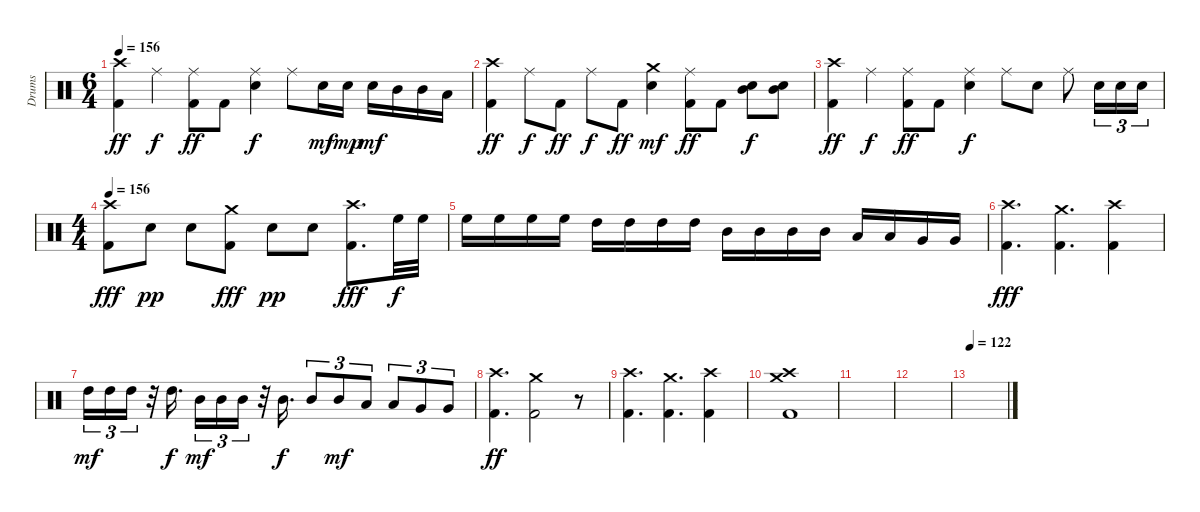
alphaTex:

\track ("Drums" "Drums") {instrument percussion}
\staff {score}
\articulation defaults
\ts (6 4)
\tempo 156
\clef neutral
\ks c
("Crash high (hit)" "Kick (hit) 2").4{dy ff} "Ride (middle)".4{dy f} ("Ride (middle)" "Kick (hit) 2").8{dy ff} "Kick (hit) 2".8 ("Ride (middle)" "Electric Snare (hit)").4{dy f} "Ride (middle)".8 "Electric Snare (hit)".16{dy mf} "Electric Snare (hit)".16{dy mp} "Electric Snare (hit)".16{dy mf} "Mid Tom (hit)".16 "Mid Tom (hit)".16 "Low Tom (hit)".16 |
("Crash high (hit)" "Kick (hit) 2").4{dy ff} "Ride (middle)".8{dy f} "Kick (hit) 2".8{dy ff} "Ride (middle)".8{dy f} "Kick (hit) 2".8{dy ff} ("Crash medium (hit)" "Electric Snare (hit)").4{dy mf} ("Ride (middle)" "Kick (hit) 2").8{dy ff} "Kick (hit) 2".8 ("Electric Snare (hit)" "Mid Tom (hit)").8{dy f} ("Electric Snare (hit)" "Mid Tom (hit)").8 |
("Crash high (hit)" "Kick (hit) 2").4{dy ff} "Ride (middle)".4{dy f} ("Ride (middle)" "Kick (hit) 2").8{dy ff} "Kick (hit) 2".8 ("Ride (middle)" "Electric Snare (hit)").4{dy f} "Ride (middle)".8 "Electric Snare (hit)".8 "Ride (middle)".8 "Electric Snare (hit)".16{tu (3 2)} "Electric Snare (hit)".16{tu (3 2)} "Electric Snare (hit)".16{tu (3 2)} |
\ts (4 4)
\tempo 156
("Crash high (hit)" "Kick (hit) 2").8{dy fff} "Electric Snare (hit)".8{dy pp} "Electric Snare (hit)".8 ("Crash medium (hit)" "Kick (hit) 2").8{dy fff} "Electric Snare (hit)".8{dy pp} "Electric Snare (hit)".8 ("Crash high (hit)" "Kick (hit) 2").8{d dy fff} "High Floor Tom (hit)".32{dy f} "High Floor Tom (hit)".32 |
"High Floor Tom (hit)".16 "High Floor Tom (hit)".16 "High Floor Tom (hit)".16 "High Floor Tom (hit)".16 "High Tom (hit)".16 "High Tom (hit)".16 "High Tom (hit)".16 "High Tom (hit)".16 "Mid Tom (hit)".16 "Mid Tom (hit)".16 "Mid Tom (hit)".16 "Mid Tom (hit)".16 "Low Tom (hit)".16 "Low Tom (hit)".16 "Very Low Tom (hit)".16 "Very Low Tom (hit)".16 |
("Crash high (hit)" "Kick (hit) 2").4{d dy fff} ("Crash medium (hit)" "Kick (hit) 2").4{d} ("Crash high (hit)" "Kick (hit) 2").4 |
"High Tom (hit)".16{tu (3 2) dy mf} "High Tom (hit)".16{tu (3 2)} "High Tom (hit)".16{tu (3 2)} r.32 "High Tom (hit)".16{d dy f} "Mid Tom (hit)".16{tu (3 2) dy mf} "Mid Tom (hit)".16{tu (3 2)} "Mid Tom (hit)".16{tu (3 2)} r.32 "Mid Tom (hit)".16{d dy f} "Mid Tom (hit)".8{tu (3 2)} "Mid Tom (hit)".8{tu (3 2) dy mf} "Low Tom (hit)".8{tu (3 2)} "Low Tom (hit)".8{tu (3 2)} "Very Low Tom (hit)".8{tu (3 2)} "Very Low Tom (hit)".8{tu (3 2)} |
("Crash high (hit)" "Kick (hit) 2").4{d dy ff} ("Crash medium (hit)" "Kick (hit) 2").2 r.8 |
("Crash high (hit)" "Kick (hit) 2").4{d} ("Crash medium (hit)" "Kick (hit) 2").4{d} ("Crash high (hit)" "Kick (hit) 2").4 |
("Crash high (hit)" "Crash medium (hit)" "Kick (hit) 2").1 |
|
|
\tempo 122
